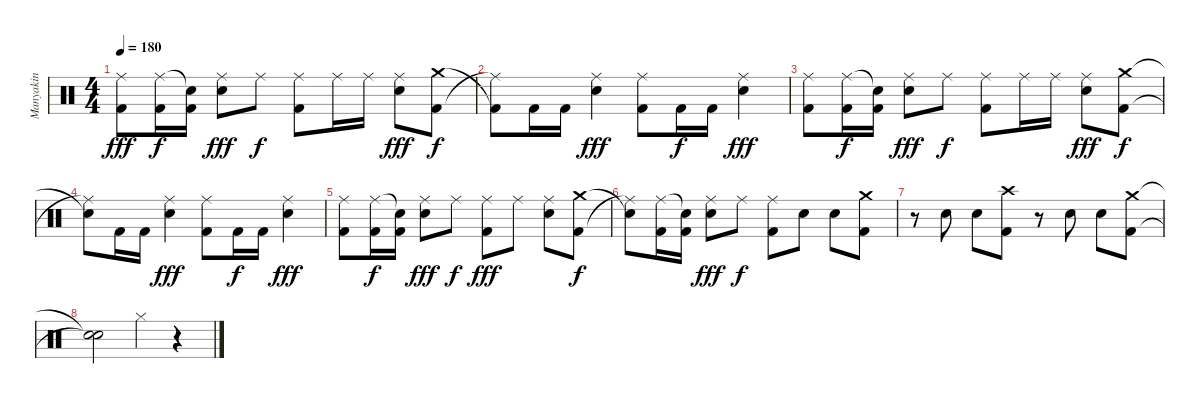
\track ("Manyakin" "Manyakin") {instrument percussion}
\staff {score}
\articulation defaults
\ts (4 4)
\tempo 180
\clef neutral
\ks c
("Kick (hit) 2" "Ride (middle)").8{dy fff} ("Kick (hit) 2" "Ride (middle)").16{dy f} ("Kick (hit) 2" "Snare (hit)"{t}).16 ("Snare (hit) 2" "Ride (middle)").8{dy fff} "Ride (middle)".8{dy f} ("Kick (hit) 2" "Ride (middle)").8 "Ride (middle)".16 "Ride (middle)".16 ("Snare (hit) 2" "Ride (middle)").8{dy fff} ("Kick (hit) 2" "Crash medium (hit)").8{dy f} |
("Ride (middle)"{t} "Kick (hit) 2"{t}).8 "Kick (hit) 2".16 "Kick (hit) 2".16 ("Snare (hit) 2" "Ride (middle)").4{dy fff} ("Kick (hit) 2" "Ride (middle)").8 "Kick (hit) 2".16{dy f} "Kick (hit) 2".16 ("Snare (hit) 2" "Ride (middle)").4{dy fff} |
("Kick (hit) 2" "Ride (middle)").8 ("Kick (hit) 2" "Ride (middle)").16{dy f} ("Kick (hit) 2" "Snare (hit)"{t}).16 ("Snare (hit) 2" "Ride (middle)").8{dy fff} "Ride (middle)".8{dy f} ("Kick (hit) 2" "Ride (middle)").8 "Ride (middle)".16 "Ride (middle)".16 ("Snare (hit) 2" "Ride (middle)").8{dy fff} ("Kick (hit) 2" "Crash medium (hit)").8{dy f} |
("Ride (middle)"{t} "Snare (hit)"{t}).8 "Kick (hit) 2".16 "Kick (hit) 2".16 ("Snare (hit) 2" "Ride (middle)").4{dy fff} ("Kick (hit) 2" "Ride (middle)").8 "Kick (hit) 2".16{dy f} "Kick (hit) 2".16 ("Snare (hit) 2" "Ride (middle)").4{dy fff} |
("Kick (hit) 2" "Ride (middle)").8 ("Kick (hit) 2" "Ride (middle)").16{dy f} ("Kick (hit) 2" "Snare (hit)"{t}).16 ("Snare (hit) 2" "Ride (middle)").8{dy fff} "Ride (middle)".8{dy f} ("Ride (middle)" "Kick (hit) 2").8{dy fff} "Ride (middle)".8 ("Snare (hit) 2" "Ride (middle)").8 ("Kick (hit) 2" "Crash medium (hit)").8{dy f} |
("Ride (middle)"{t} "Snare (hit)"{t}).8 ("Kick (hit) 2" "Ride (middle)").16 ("Kick (hit) 2" "Snare (hit)"{t}).16 ("Snare (hit) 2" "Ride (middle)").8{dy fff} "Ride (middle)".8{dy f} ("Ride (middle)" "Kick (hit) 2").8 "Snare (hit) 2".8 "Snare (hit) 2".8 ("Kick (hit) 2" "Crash medium (hit)").8 |
r.8 "Snare (hit) 2".8 "Snare (hit) 2".8 ("Kick (hit) 2" "Crash high (hit)").8 r.8 "Snare (hit) 2".8 "Snare (hit) 2".8 ("Kick (hit) 2" "Crash medium (hit)").8 |
("Snare (hit)"{t} "Snare (hit)"{t}).2 "Hi-Hat (closed)".4 r.4
